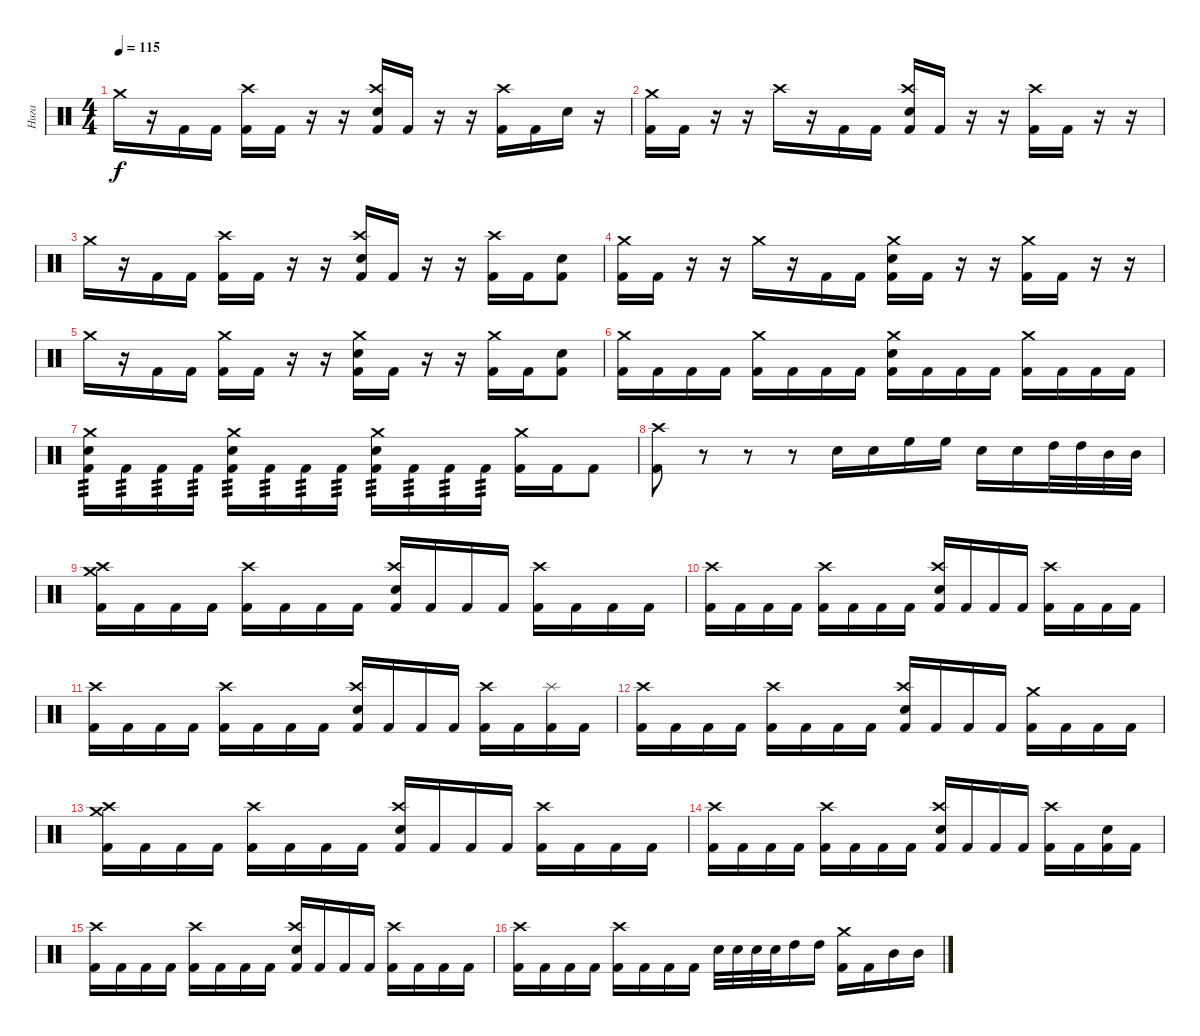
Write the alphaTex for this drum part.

\track ("Нига" "Нига") {instrument percussion}
\staff {score}
\articulation defaults
\ts (4 4)
\tempo 115
\clef neutral
\ks c "Crash medium (hit)".16{dy f}
r.16 "Kick (hit) 2".16 "Kick (hit) 2".16 ("Crash high (hit)" "Kick (hit) 2").16 "Kick (hit) 2".16 r.16 r.16 ("Crash high (hit)" "Electric Snare (hit)" "Kick (hit) 2").16 "Kick (hit) 2".16 r.16 r.16 ("Crash high (hit)" "Kick (hit) 2").16 "Kick (hit) 2".16 "Electric Snare (hit)".16 r.16 |
("Crash medium (hit)" "Kick (hit) 2").16 "Kick (hit) 2".16 r.16 r.16 "Crash high (hit)".16 r.16 "Kick (hit) 2".16 "Kick (hit) 2".16 ("Crash high (hit)" "Electric Snare (hit)" "Kick (hit) 2").16 "Kick (hit) 2".16 r.16 r.16 ("Crash high (hit)" "Kick (hit) 2").16 "Kick (hit) 2".16 r.16 r.16 |
"Crash medium (hit)".16 r.16 "Kick (hit) 2".16 "Kick (hit) 2".16 ("Crash high (hit)" "Kick (hit) 2").16 "Kick (hit) 2".16 r.16 r.16 ("Crash high (hit)" "Electric Snare (hit)" "Kick (hit) 2").16 "Kick (hit) 2".16 r.16 r.16 ("Crash high (hit)" "Kick (hit) 2").16 "Kick (hit) 2".16 ("Electric Snare (hit)" "Kick (hit) 2").8 |
("Crash medium (hit)" "Kick (hit) 2").16 "Kick (hit) 2".16 r.16 r.16 "Crash medium (hit)".16 r.16 "Kick (hit) 2".16 "Kick (hit) 2".16 ("Crash medium (hit)" "Electric Snare (hit)" "Kick (hit) 2").16 "Kick (hit) 2".16 r.16 r.16 ("Crash medium (hit)" "Kick (hit) 2").16 "Kick (hit) 2".16 r.16 r.16 |
"Crash medium (hit)".16 r.16 "Kick (hit) 2".16 "Kick (hit) 2".16 ("Crash medium (hit)" "Kick (hit) 2").16 "Kick (hit) 2".16 r.16 r.16 ("Crash medium (hit)" "Electric Snare (hit)" "Kick (hit) 2").16 "Kick (hit) 2".16 r.16 r.16 ("Crash medium (hit)" "Kick (hit) 2").16 "Kick (hit) 2".16 ("Electric Snare (hit)" "Kick (hit) 2").8 |
("Crash medium (hit)" "Kick (hit) 2").16 "Kick (hit) 2".16 "Kick (hit) 2".16 "Kick (hit) 2".16 ("Crash medium (hit)" "Kick (hit) 2").16 "Kick (hit) 2".16 "Kick (hit) 2".16 "Kick (hit) 2".16 ("Crash medium (hit)" "Electric Snare (hit)" "Kick (hit) 2").16 "Kick (hit) 2".16 "Kick (hit) 2".16 "Kick (hit) 2".16 ("Crash medium (hit)" "Kick (hit) 2").16 "Kick (hit) 2".16 "Kick (hit) 2".16 "Kick (hit) 2".16 |
("Crash medium (hit)" "Electric Snare (hit)" "Kick (hit) 2").16{tp 3} "Kick (hit) 2".16{tp 3} "Kick (hit) 2".16{tp 3} "Kick (hit) 2".16{tp 3} ("Crash medium (hit)" "Electric Snare (hit)" "Kick (hit) 2").16{tp 3} "Kick (hit) 2".16{tp 3} "Kick (hit) 2".16{tp 3} "Kick (hit) 2".16{tp 3} ("Crash medium (hit)" "Electric Snare (hit)" "Kick (hit) 2").16{tp 3} "Kick (hit) 2".16{tp 3} "Kick (hit) 2".16{tp 3} "Kick (hit) 2".16{tp 3} ("Crash medium (hit)" "Kick (hit) 2").16 "Kick (hit) 2".16 "Kick (hit) 2".8 |
("Crash high (hit)" "Kick (hit) 2").8 r.8 r.8 r.8 "Electric Snare (hit)".16 "Electric Snare (hit)".16 "High Floor Tom (hit)".16 "High Floor Tom (hit)".16 "Electric Snare (hit)".16 "Electric Snare (hit)".16 "High Tom (hit)".32 "High Tom (hit)".32 "Mid Tom (hit)".32 "Mid Tom (hit)".32 |
("Crash high (hit)" "Crash medium (hit)" "Kick (hit) 2").16 "Kick (hit) 2".16 "Kick (hit) 2".16 "Kick (hit) 2".16 ("Crash high (hit)" "Kick (hit) 2").16 "Kick (hit) 2".16 "Kick (hit) 2".16 "Kick (hit) 2".16 ("Crash high (hit)" "Electric Snare (hit)" "Kick (hit) 2").16 "Kick (hit) 2".16 "Kick (hit) 2".16 "Kick (hit) 2".16 ("Crash high (hit)" "Kick (hit) 2").16 "Kick (hit) 2".16 "Kick (hit) 2".16 "Kick (hit) 2".16 |
("Crash high (hit)" "Kick (hit) 2").16 "Kick (hit) 2".16 "Kick (hit) 2".16 "Kick (hit) 2".16 ("Crash high (hit)" "Kick (hit) 2").16 "Kick (hit) 2".16 "Kick (hit) 2".16 "Kick (hit) 2".16 ("Crash high (hit)" "Electric Snare (hit)" "Kick (hit) 2").16 "Kick (hit) 2".16 "Kick (hit) 2".16 "Kick (hit) 2".16 ("Crash high (hit)" "Kick (hit) 2").16 "Kick (hit) 2".16 "Kick (hit) 2".16 "Kick (hit) 2".16 |
("Crash high (hit)" "Kick (hit) 2").16 "Kick (hit) 2".16 "Kick (hit) 2".16 "Kick (hit) 2".16 ("Crash high (hit)" "Kick (hit) 2").16 "Kick (hit) 2".16 "Kick (hit) 2".16 "Kick (hit) 2".16 ("Crash high (hit)" "Electric Snare (hit)" "Kick (hit) 2").16 "Kick (hit) 2".16 "Kick (hit) 2".16 "Kick (hit) 2".16 ("Crash high (hit)" "Kick (hit) 2").16 "Kick (hit) 2".16 ("Splash (hit)" "Kick (hit) 2").16 "Kick (hit) 2".16 |
("Crash high (hit)" "Kick (hit) 2").16 "Kick (hit) 2".16 "Kick (hit) 2".16 "Kick (hit) 2".16 ("Crash high (hit)" "Kick (hit) 2").16 "Kick (hit) 2".16 "Kick (hit) 2".16 "Kick (hit) 2".16 ("Crash high (hit)" "Electric Snare (hit)" "Kick (hit) 2").16 "Kick (hit) 2".16 "Kick (hit) 2".16 "Kick (hit) 2".16 ("Crash medium (hit)" "Kick (hit) 2").16 "Kick (hit) 2".16 "Kick (hit) 2".16 "Kick (hit) 2".16 |
("Crash high (hit)" "Crash medium (hit)" "Kick (hit) 2").16 "Kick (hit) 2".16 "Kick (hit) 2".16 "Kick (hit) 2".16 ("Crash high (hit)" "Kick (hit) 2").16 "Kick (hit) 2".16 "Kick (hit) 2".16 "Kick (hit) 2".16 ("Crash high (hit)" "Electric Snare (hit)" "Kick (hit) 2").16 "Kick (hit) 2".16 "Kick (hit) 2".16 "Kick (hit) 2".16 ("Crash high (hit)" "Kick (hit) 2").16 "Kick (hit) 2".16 "Kick (hit) 2".16 "Kick (hit) 2".16 |
("Crash high (hit)" "Kick (hit) 2").16 "Kick (hit) 2".16 "Kick (hit) 2".16 "Kick (hit) 2".16 ("Crash high (hit)" "Kick (hit) 2").16 "Kick (hit) 2".16 "Kick (hit) 2".16 "Kick (hit) 2".16 ("Crash high (hit)" "Electric Snare (hit)" "Kick (hit) 2").16 "Kick (hit) 2".16 "Kick (hit) 2".16 "Kick (hit) 2".16 ("Crash high (hit)" "Kick (hit) 2").16 "Kick (hit) 2".16 ("Electric Snare (hit)" "Kick (hit) 2").16 "Kick (hit) 2".16 |
("Crash high (hit)" "Kick (hit) 2").16 "Kick (hit) 2".16 "Kick (hit) 2".16 "Kick (hit) 2".16 ("Crash high (hit)" "Kick (hit) 2").16 "Kick (hit) 2".16 "Kick (hit) 2".16 "Kick (hit) 2".16 ("Crash high (hit)" "Electric Snare (hit)" "Kick (hit) 2").16 "Kick (hit) 2".16 "Kick (hit) 2".16 "Kick (hit) 2".16 ("Crash high (hit)" "Kick (hit) 2").16 "Kick (hit) 2".16 "Kick (hit) 2".16 "Kick (hit) 2".16 |
("Crash high (hit)" "Kick (hit) 2").16 "Kick (hit) 2".16 "Kick (hit) 2".16 "Kick (hit) 2".16 ("Crash high (hit)" "Kick (hit) 2").16 "Kick (hit) 2".16 "Kick (hit) 2".16 "Kick (hit) 2".16 "Electric Snare (hit)".32 "Electric Snare (hit)".32 "Electric Snare (hit)".32 "Electric Snare (hit)".32 "High Tom (hit)".16 "High Tom (hit)".16 ("Crash medium (hit)" "Kick (hit) 2").16 "Kick (hit) 2".16 "Mid Tom (hit)".16 "Mid Tom (hit)".16
